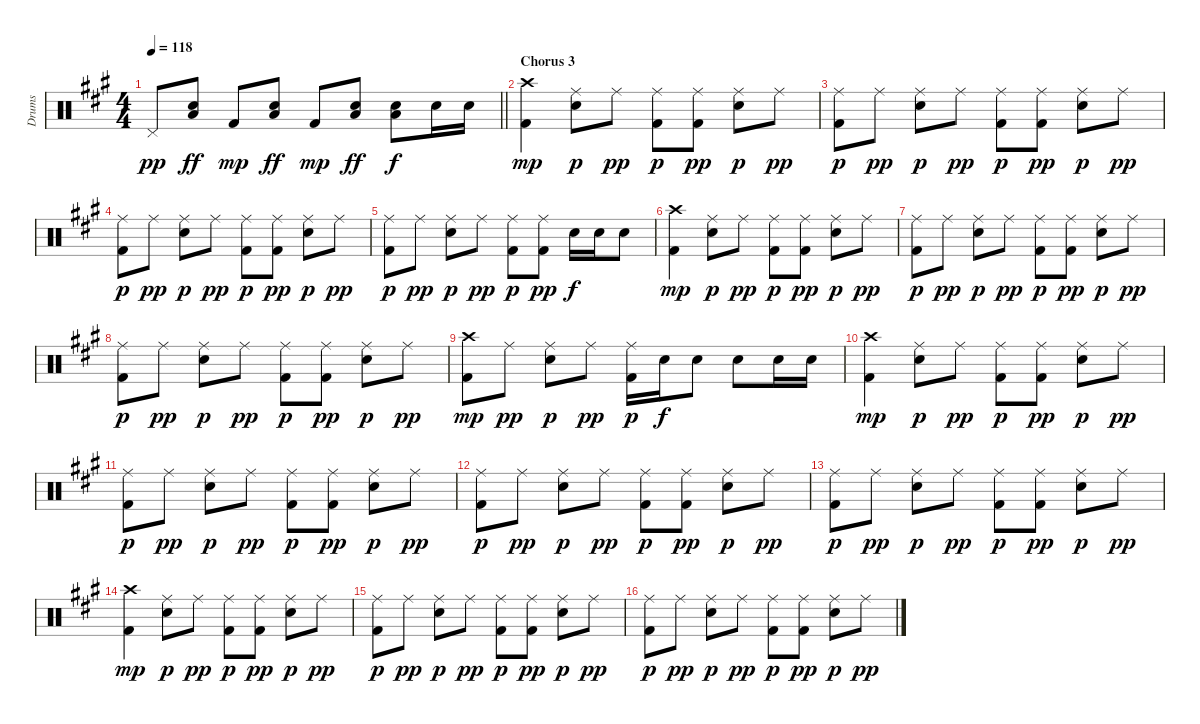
\track ("Drums" "Drums") {instrument percussion}
\staff {score}
\articulation defaults
\ts (4 4)
\tempo 118
\clef neutral
\barLineRight lightlight
\ks a "Pedal Hi-Hat (hit)".8{dy pp}
("Electric Snare (hit)" "Low Tom (hit)").8{dy ff} "Kick (hit) 2".8{dy mp} ("Electric Snare (hit)" "Low Tom (hit)").8{dy ff} "Kick (hit) 2".8{dy mp} ("Electric Snare (hit)" "Low Tom (hit)").8{dy ff} ("Electric Snare (hit)" "Low Tom (hit)").8{dy f} "Electric Snare (hit)".16 "Electric Snare (hit)".16 |
\section ("" "Chorus 3")
("Crash high (hit)" "Kick (hit) 2").4{dy mp} ("Electric Snare (hit)" "Ride (middle)").8{dy p} "Ride (middle)".8{dy pp} ("Kick (hit) 2" "Ride (middle)").8{dy p} ("Kick (hit) 2" "Ride (middle)").8{dy pp} ("Electric Snare (hit)" "Ride (middle)").8{dy p} "Ride (middle)".8{dy pp} |
("Kick (hit) 2" "Ride (middle)").8{dy p} "Ride (middle)".8{dy pp} ("Electric Snare (hit)" "Ride (middle)").8{dy p} "Ride (middle)".8{dy pp} ("Kick (hit) 2" "Ride (middle)").8{dy p} ("Kick (hit) 2" "Ride (middle)").8{dy pp} ("Electric Snare (hit)" "Ride (middle)").8{dy p} "Ride (middle)".8{dy pp} |
("Kick (hit) 2" "Ride (middle)").8{dy p} "Ride (middle)".8{dy pp} ("Electric Snare (hit)" "Ride (middle)").8{dy p} "Ride (middle)".8{dy pp} ("Kick (hit) 2" "Ride (middle)").8{dy p} ("Kick (hit) 2" "Ride (middle)").8{dy pp} ("Electric Snare (hit)" "Ride (middle)").8{dy p} "Ride (middle)".8{dy pp} |
("Kick (hit) 2" "Ride (middle)").8{dy p} "Ride (middle)".8{dy pp} ("Electric Snare (hit)" "Ride (middle)").8{dy p} "Ride (middle)".8{dy pp} ("Kick (hit) 2" "Ride (middle)").8{dy p} ("Kick (hit) 2" "Ride (middle)").8{dy pp} "Electric Snare (hit)".16{dy f} "Electric Snare (hit)".16 "Electric Snare (hit)".8 |
("Crash high (hit)" "Kick (hit) 2").4{dy mp} ("Electric Snare (hit)" "Ride (middle)").8{dy p} "Ride (middle)".8{dy pp} ("Kick (hit) 2" "Ride (middle)").8{dy p} ("Kick (hit) 2" "Ride (middle)").8{dy pp} ("Electric Snare (hit)" "Ride (middle)").8{dy p} "Ride (middle)".8{dy pp} |
("Kick (hit) 2" "Ride (middle)").8{dy p} "Ride (middle)".8{dy pp} ("Electric Snare (hit)" "Ride (middle)").8{dy p} "Ride (middle)".8{dy pp} ("Kick (hit) 2" "Ride (middle)").8{dy p} ("Kick (hit) 2" "Ride (middle)").8{dy pp} ("Electric Snare (hit)" "Ride (middle)").8{dy p} "Ride (middle)".8{dy pp} |
("Kick (hit) 2" "Ride (middle)").8{dy p} "Ride (middle)".8{dy pp} ("Electric Snare (hit)" "Ride (middle)").8{dy p} "Ride (middle)".8{dy pp} ("Kick (hit) 2" "Ride (middle)").8{dy p} ("Kick (hit) 2" "Ride (middle)").8{dy pp} ("Electric Snare (hit)" "Ride (middle)").8{dy p} "Ride (middle)".8{dy pp} |
("Crash high (hit)" "Kick (hit) 2").8{dy mp} "Ride (middle)".8{dy pp} ("Electric Snare (hit)" "Ride (middle)").8{dy p} "Ride (middle)".8{dy pp} ("Kick (hit) 2" "Ride (middle)").16{dy p} "Electric Snare (hit)".16{dy f} "Electric Snare (hit)".8 "Electric Snare (hit)".8 "Electric Snare (hit)".16 "Electric Snare (hit)".16 |
("Crash high (hit)" "Kick (hit) 2").4{dy mp} ("Electric Snare (hit)" "Ride (middle)").8{dy p} "Ride (middle)".8{dy pp} ("Kick (hit) 2" "Ride (middle)").8{dy p} ("Kick (hit) 2" "Ride (middle)").8{dy pp} ("Electric Snare (hit)" "Ride (middle)").8{dy p} "Ride (middle)".8{dy pp} |
("Kick (hit) 2" "Ride (middle)").8{dy p} "Ride (middle)".8{dy pp} ("Electric Snare (hit)" "Ride (middle)").8{dy p} "Ride (middle)".8{dy pp} ("Kick (hit) 2" "Ride (middle)").8{dy p} ("Kick (hit) 2" "Ride (middle)").8{dy pp} ("Electric Snare (hit)" "Ride (middle)").8{dy p} "Ride (middle)".8{dy pp} |
("Kick (hit) 2" "Ride (middle)").8{dy p} "Ride (middle)".8{dy pp} ("Electric Snare (hit)" "Ride (middle)").8{dy p} "Ride (middle)".8{dy pp} ("Kick (hit) 2" "Ride (middle)").8{dy p} ("Kick (hit) 2" "Ride (middle)").8{dy pp} ("Electric Snare (hit)" "Ride (middle)").8{dy p} "Ride (middle)".8{dy pp} |
("Kick (hit) 2" "Ride (middle)").8{dy p} "Ride (middle)".8{dy pp} ("Electric Snare (hit)" "Ride (middle)").8{dy p} "Ride (middle)".8{dy pp} ("Kick (hit) 2" "Ride (middle)").8{dy p} ("Kick (hit) 2" "Ride (middle)").8{dy pp} ("Electric Snare (hit)" "Ride (middle)").8{dy p} "Ride (middle)".8{dy pp} |
("Crash high (hit)" "Kick (hit) 2").4{dy mp} ("Electric Snare (hit)" "Ride (middle)").8{dy p} "Ride (middle)".8{dy pp} ("Kick (hit) 2" "Ride (middle)").8{dy p} ("Kick (hit) 2" "Ride (middle)").8{dy pp} ("Electric Snare (hit)" "Ride (middle)").8{dy p} "Ride (middle)".8{dy pp} |
("Kick (hit) 2" "Ride (middle)").8{dy p} "Ride (middle)".8{dy pp} ("Electric Snare (hit)" "Ride (middle)").8{dy p} "Ride (middle)".8{dy pp} ("Kick (hit) 2" "Ride (middle)").8{dy p} ("Kick (hit) 2" "Ride (middle)").8{dy pp} ("Electric Snare (hit)" "Ride (middle)").8{dy p} "Ride (middle)".8{dy pp} |
("Kick (hit) 2" "Ride (middle)").8{dy p} "Ride (middle)".8{dy pp} ("Electric Snare (hit)" "Ride (middle)").8{dy p} "Ride (middle)".8{dy pp} ("Kick (hit) 2" "Ride (middle)").8{dy p} ("Kick (hit) 2" "Ride (middle)").8{dy pp} ("Electric Snare (hit)" "Ride (middle)").8{dy p} "Ride (middle)".8{dy pp}
